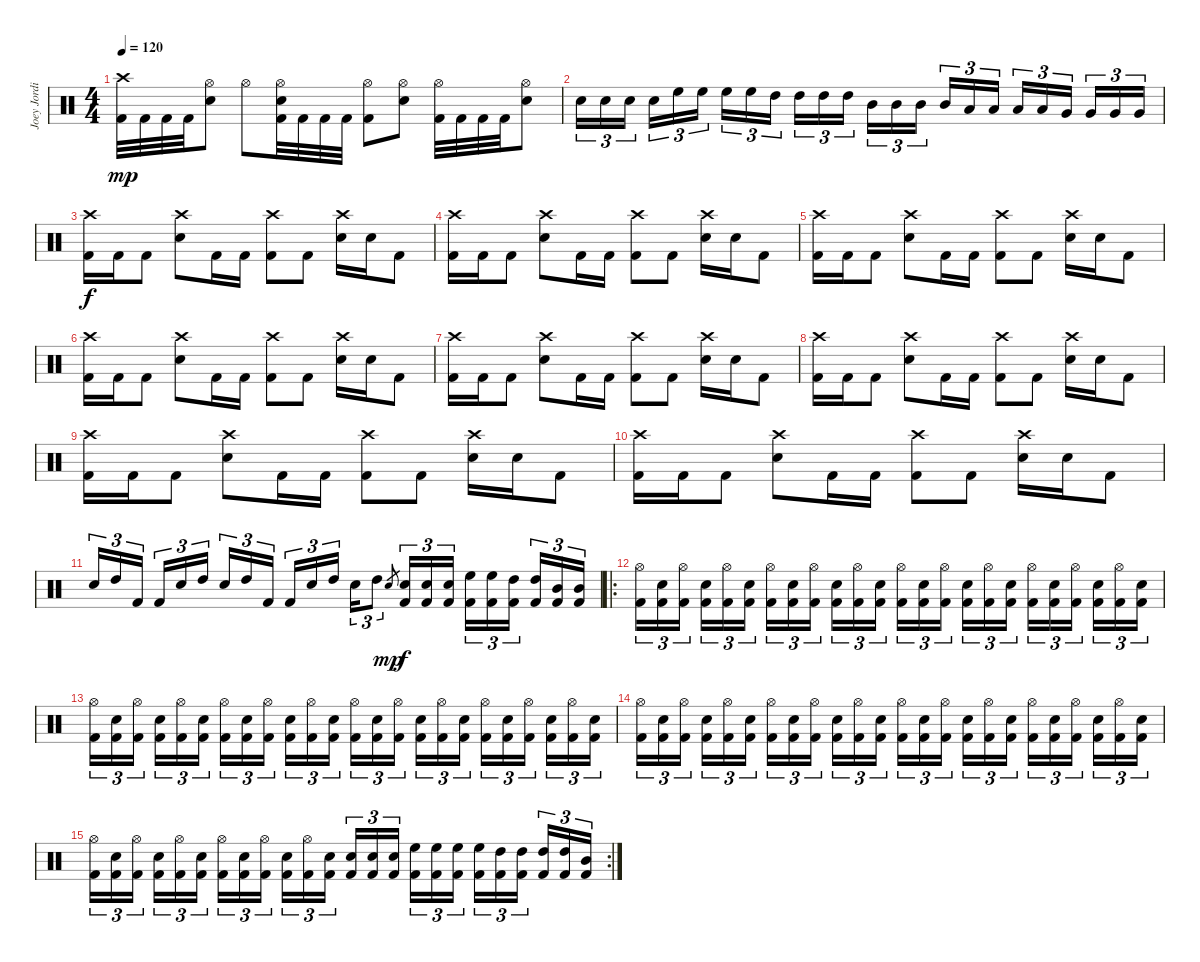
\track ("Joey Jordison" "Joey Jordi") {instrument percussion}
\staff {score}
\articulation defaults
\ts (4 4)
\tempo 120
\clef neutral
\ks c
("Crash high (hit)" "Kick (hit) 2").32{dy mp} "Kick (hit) 2".32 "Kick (hit) 2".32 "Kick (hit) 2".32 ("Hi-Hat (open)" "Electric Snare (hit)").8 "Hi-Hat (open)".8 ("Hi-Hat (open)" "Electric Snare (hit)" "Kick (hit) 2").32 "Kick (hit) 2".32 "Kick (hit) 2".32 "Kick (hit) 2".32 ("Hi-Hat (open)" "Kick (hit) 2").8 ("Hi-Hat (open)" "Electric Snare (hit)").8 ("Hi-Hat (open)" "Kick (hit) 2").32 "Kick (hit) 2".32 "Kick (hit) 2".32 "Kick (hit) 2".32 ("Hi-Hat (open)" "Electric Snare (hit)").8 |
"Electric Snare (hit)".16{tu (3 2)} "Electric Snare (hit)".16{tu (3 2)} "Electric Snare (hit)".16{tu (3 2) beam splitsecondary} "Electric Snare (hit)".16{tu (3 2)} "High Floor Tom (hit)".16{tu (3 2)} "High Floor Tom (hit)".16{tu (3 2)} "High Floor Tom (hit)".16{tu (3 2)} "High Floor Tom (hit)".16{tu (3 2)} "High Tom (hit)".16{tu (3 2) beam splitsecondary} "High Tom (hit)".16{tu (3 2)} "High Tom (hit)".16{tu (3 2)} "High Tom (hit)".16{tu (3 2)} "Mid Tom (hit)".16{tu (3 2)} "Mid Tom (hit)".16{tu (3 2)} "Mid Tom (hit)".16{tu (3 2) beam splitsecondary} "Mid Tom (hit)".16{tu (3 2)} "Low Tom (hit)".16{tu (3 2)} "Low Tom (hit)".16{tu (3 2)} "Low Tom (hit)".16{tu (3 2)} "Low Tom (hit)".16{tu (3 2)} "Very Low Tom (hit)".16{tu (3 2) beam splitsecondary} "Very Low Tom (hit)".16{tu (3 2)} "Very Low Tom (hit)".16{tu (3 2)} "Very Low Tom (hit)".16{tu (3 2)} |
("Crash high (hit)" "Kick (hit) 2").16{dy f} "Kick (hit) 2".16 "Kick (hit) 2".8 ("Crash high (hit)" "Electric Snare (hit)").8 "Kick (hit) 2".16 "Kick (hit) 2".16 ("Crash high (hit)" "Kick (hit) 2").8 "Kick (hit) 2".8 ("Crash high (hit)" "Electric Snare (hit)").16 "Electric Snare (hit)".16 "Kick (hit) 2".8 |
("Crash high (hit)" "Kick (hit) 2").16 "Kick (hit) 2".16 "Kick (hit) 2".8 ("Crash high (hit)" "Electric Snare (hit)").8 "Kick (hit) 2".16 "Kick (hit) 2".16 ("Crash high (hit)" "Kick (hit) 2").8 "Kick (hit) 2".8 ("Crash high (hit)" "Electric Snare (hit)").16 "Electric Snare (hit)".16 "Kick (hit) 2".8 |
("Crash high (hit)" "Kick (hit) 2").16 "Kick (hit) 2".16 "Kick (hit) 2".8 ("Crash high (hit)" "Electric Snare (hit)").8 "Kick (hit) 2".16 "Kick (hit) 2".16 ("Crash high (hit)" "Kick (hit) 2").8 "Kick (hit) 2".8 ("Crash high (hit)" "Electric Snare (hit)").16 "Electric Snare (hit)".16 "Kick (hit) 2".8 |
("Crash high (hit)" "Kick (hit) 2").16 "Kick (hit) 2".16 "Kick (hit) 2".8 ("Crash high (hit)" "Electric Snare (hit)").8 "Kick (hit) 2".16 "Kick (hit) 2".16 ("Crash high (hit)" "Kick (hit) 2").8 "Kick (hit) 2".8 ("Crash high (hit)" "Electric Snare (hit)").16 "Electric Snare (hit)".16 "Kick (hit) 2".8 |
("Crash high (hit)" "Kick (hit) 2").16 "Kick (hit) 2".16 "Kick (hit) 2".8 ("Crash high (hit)" "Electric Snare (hit)").8 "Kick (hit) 2".16 "Kick (hit) 2".16 ("Crash high (hit)" "Kick (hit) 2").8 "Kick (hit) 2".8 ("Crash high (hit)" "Electric Snare (hit)").16 "Electric Snare (hit)".16 "Kick (hit) 2".8 |
("Crash high (hit)" "Kick (hit) 2").16 "Kick (hit) 2".16 "Kick (hit) 2".8 ("Crash high (hit)" "Electric Snare (hit)").8 "Kick (hit) 2".16 "Kick (hit) 2".16 ("Crash high (hit)" "Kick (hit) 2").8 "Kick (hit) 2".8 ("Crash high (hit)" "Electric Snare (hit)").16 "Electric Snare (hit)".16 "Kick (hit) 2".8 |
("Crash high (hit)" "Kick (hit) 2").16 "Kick (hit) 2".16 "Kick (hit) 2".8 ("Crash high (hit)" "Electric Snare (hit)").8 "Kick (hit) 2".16 "Kick (hit) 2".16 ("Crash high (hit)" "Kick (hit) 2").8 "Kick (hit) 2".8 ("Crash high (hit)" "Electric Snare (hit)").16 "Electric Snare (hit)".16 "Kick (hit) 2".8 |
("Crash high (hit)" "Kick (hit) 2").16 "Kick (hit) 2".16 "Kick (hit) 2".8 ("Crash high (hit)" "Electric Snare (hit)").8 "Kick (hit) 2".16 "Kick (hit) 2".16 ("Crash high (hit)" "Kick (hit) 2").8 "Kick (hit) 2".8 ("Crash high (hit)" "Electric Snare (hit)").16 "Electric Snare (hit)".16 "Kick (hit) 2".8 |
"Electric Snare (hit)".16{tu (3 2)} "High Tom (hit)".16{tu (3 2)} "Kick (hit) 2".16{tu (3 2) beam splitsecondary} "Kick (hit) 2".16{tu (3 2)} "Electric Snare (hit)".16{tu (3 2)} "High Tom (hit)".16{tu (3 2)} "Electric Snare (hit)".16{tu (3 2)} "High Tom (hit)".16{tu (3 2)} "Kick (hit) 2".16{tu (3 2) beam splitsecondary} "Kick (hit) 2".16{tu (3 2)} "Electric Snare (hit)".16{tu (3 2)} "High Tom (hit)".16{tu (3 2)} "Electric Snare (hit)".16{tu (3 2)} "High Tom (hit)".8{tu (3 2)} "Electric Snare (hit)".8{gr dy mp} ("Electric Snare (hit)" "Kick (hit) 2").16{tu (3 2) dy f} ("Electric Snare (hit)" "Kick (hit) 2").16{tu (3 2)} ("Electric Snare (hit)" "Kick (hit) 2").16{tu (3 2)} ("High Floor Tom (hit)" "Kick (hit) 2").16{tu (3 2)} ("High Floor Tom (hit)" "Kick (hit) 2").16{tu (3 2)} ("High Tom (hit)" "Kick (hit) 2").16{tu (3 2) beam splitsecondary} ("High Tom (hit)" "Kick (hit) 2").16{tu (3 2)} ("Mid Tom (hit)" "Kick (hit) 2").16{tu (3 2)} ("Mid Tom (hit)" "Kick (hit) 2").16{tu (3 2)} |
\ro
("Hi-Hat (open)" "Kick (hit) 2").16{tu (3 2)} ("Electric Snare (hit)" "Kick (hit) 2").16{tu (3 2)} ("Hi-Hat (open)" "Kick (hit) 2").16{tu (3 2) beam splitsecondary} ("Electric Snare (hit)" "Kick (hit) 2").16{tu (3 2)} ("Hi-Hat (open)" "Kick (hit) 2").16{tu (3 2)} ("Electric Snare (hit)" "Kick (hit) 2").16{tu (3 2)} ("Hi-Hat (open)" "Kick (hit) 2").16{tu (3 2)} ("Electric Snare (hit)" "Kick (hit) 2").16{tu (3 2)} ("Hi-Hat (open)" "Kick (hit) 2").16{tu (3 2) beam splitsecondary} ("Electric Snare (hit)" "Kick (hit) 2").16{tu (3 2)} ("Hi-Hat (open)" "Kick (hit) 2").16{tu (3 2)} ("Electric Snare (hit)" "Kick (hit) 2").16{tu (3 2)} ("Hi-Hat (open)" "Kick (hit) 2").16{tu (3 2)} ("Electric Snare (hit)" "Kick (hit) 2").16{tu (3 2)} ("Hi-Hat (open)" "Kick (hit) 2").16{tu (3 2) beam splitsecondary} ("Electric Snare (hit)" "Kick (hit) 2").16{tu (3 2)} ("Hi-Hat (open)" "Kick (hit) 2").16{tu (3 2)} ("Electric Snare (hit)" "Kick (hit) 2").16{tu (3 2)} ("Hi-Hat (open)" "Kick (hit) 2").16{tu (3 2)} ("Electric Snare (hit)" "Kick (hit) 2").16{tu (3 2)} ("Hi-Hat (open)" "Kick (hit) 2").16{tu (3 2) beam splitsecondary} ("Electric Snare (hit)" "Kick (hit) 2").16{tu (3 2)} ("Hi-Hat (open)" "Kick (hit) 2").16{tu (3 2)} ("Electric Snare (hit)" "Kick (hit) 2").16{tu (3 2)} |
("Hi-Hat (open)" "Kick (hit) 2").16{tu (3 2)} ("Electric Snare (hit)" "Kick (hit) 2").16{tu (3 2)} ("Hi-Hat (open)" "Kick (hit) 2").16{tu (3 2) beam splitsecondary} ("Electric Snare (hit)" "Kick (hit) 2").16{tu (3 2)} ("Hi-Hat (open)" "Kick (hit) 2").16{tu (3 2)} ("Electric Snare (hit)" "Kick (hit) 2").16{tu (3 2)} ("Hi-Hat (open)" "Kick (hit) 2").16{tu (3 2)} ("Electric Snare (hit)" "Kick (hit) 2").16{tu (3 2)} ("Hi-Hat (open)" "Kick (hit) 2").16{tu (3 2) beam splitsecondary} ("Electric Snare (hit)" "Kick (hit) 2").16{tu (3 2)} ("Hi-Hat (open)" "Kick (hit) 2").16{tu (3 2)} ("Electric Snare (hit)" "Kick (hit) 2").16{tu (3 2)} ("Hi-Hat (open)" "Kick (hit) 2").16{tu (3 2)} ("Electric Snare (hit)" "Kick (hit) 2").16{tu (3 2)} ("Hi-Hat (open)" "Kick (hit) 2").16{tu (3 2) beam splitsecondary} ("Electric Snare (hit)" "Kick (hit) 2").16{tu (3 2)} ("Hi-Hat (open)" "Kick (hit) 2").16{tu (3 2)} ("Electric Snare (hit)" "Kick (hit) 2").16{tu (3 2)} ("Hi-Hat (open)" "Kick (hit) 2").16{tu (3 2)} ("Electric Snare (hit)" "Kick (hit) 2").16{tu (3 2)} ("Hi-Hat (open)" "Kick (hit) 2").16{tu (3 2) beam splitsecondary} ("Electric Snare (hit)" "Kick (hit) 2").16{tu (3 2)} ("Hi-Hat (open)" "Kick (hit) 2").16{tu (3 2)} ("Electric Snare (hit)" "Kick (hit) 2").16{tu (3 2)} |
("Hi-Hat (open)" "Kick (hit) 2").16{tu (3 2)} ("Electric Snare (hit)" "Kick (hit) 2").16{tu (3 2)} ("Hi-Hat (open)" "Kick (hit) 2").16{tu (3 2) beam splitsecondary} ("Electric Snare (hit)" "Kick (hit) 2").16{tu (3 2)} ("Hi-Hat (open)" "Kick (hit) 2").16{tu (3 2)} ("Electric Snare (hit)" "Kick (hit) 2").16{tu (3 2)} ("Hi-Hat (open)" "Kick (hit) 2").16{tu (3 2)} ("Electric Snare (hit)" "Kick (hit) 2").16{tu (3 2)} ("Hi-Hat (open)" "Kick (hit) 2").16{tu (3 2) beam splitsecondary} ("Electric Snare (hit)" "Kick (hit) 2").16{tu (3 2)} ("Hi-Hat (open)" "Kick (hit) 2").16{tu (3 2)} ("Electric Snare (hit)" "Kick (hit) 2").16{tu (3 2)} ("Hi-Hat (open)" "Kick (hit) 2").16{tu (3 2)} ("Electric Snare (hit)" "Kick (hit) 2").16{tu (3 2)} ("Hi-Hat (open)" "Kick (hit) 2").16{tu (3 2) beam splitsecondary} ("Electric Snare (hit)" "Kick (hit) 2").16{tu (3 2)} ("Hi-Hat (open)" "Kick (hit) 2").16{tu (3 2)} ("Electric Snare (hit)" "Kick (hit) 2").16{tu (3 2)} ("Hi-Hat (open)" "Kick (hit) 2").16{tu (3 2)} ("Electric Snare (hit)" "Kick (hit) 2").16{tu (3 2)} ("Hi-Hat (open)" "Kick (hit) 2").16{tu (3 2) beam splitsecondary} ("Electric Snare (hit)" "Kick (hit) 2").16{tu (3 2)} ("Hi-Hat (open)" "Kick (hit) 2").16{tu (3 2)} ("Electric Snare (hit)" "Kick (hit) 2").16{tu (3 2)} |
\rc 2
("Hi-Hat (open)" "Kick (hit) 2").16{tu (3 2)} ("Electric Snare (hit)" "Kick (hit) 2").16{tu (3 2)} ("Hi-Hat (open)" "Kick (hit) 2").16{tu (3 2) beam splitsecondary} ("Electric Snare (hit)" "Kick (hit) 2").16{tu (3 2)} ("Hi-Hat (open)" "Kick (hit) 2").16{tu (3 2)} ("Electric Snare (hit)" "Kick (hit) 2").16{tu (3 2)} ("Hi-Hat (open)" "Kick (hit) 2").16{tu (3 2)} ("Electric Snare (hit)" "Kick (hit) 2").16{tu (3 2)} ("Hi-Hat (open)" "Kick (hit) 2").16{tu (3 2) beam splitsecondary} ("Electric Snare (hit)" "Kick (hit) 2").16{tu (3 2)} ("Hi-Hat (open)" "Kick (hit) 2").16{tu (3 2)} ("Electric Snare (hit)" "Kick (hit) 2").16{tu (3 2)} ("Electric Snare (hit)" "Kick (hit) 2").16{tu (3 2)} ("Electric Snare (hit)" "Kick (hit) 2").16{tu (3 2)} ("Electric Snare (hit)" "Kick (hit) 2").16{tu (3 2) beam splitsecondary} ("High Floor Tom (hit)" "Kick (hit) 2").16{tu (3 2)} ("High Floor Tom (hit)" "Kick (hit) 2").16{tu (3 2)} ("High Floor Tom (hit)" "Kick (hit) 2").16{tu (3 2)} ("High Floor Tom (hit)" "Kick (hit) 2").16{tu (3 2)} ("High Tom (hit)" "Kick (hit) 2").16{tu (3 2)} ("High Tom (hit)" "Kick (hit) 2").16{tu (3 2) beam splitsecondary} ("High Tom (hit)" "Kick (hit) 2").16{tu (3 2)} ("High Tom (hit)" "Kick (hit) 2").16{tu (3 2)} ("Mid Tom (hit)" "Kick (hit) 2").16{tu (3 2)}
